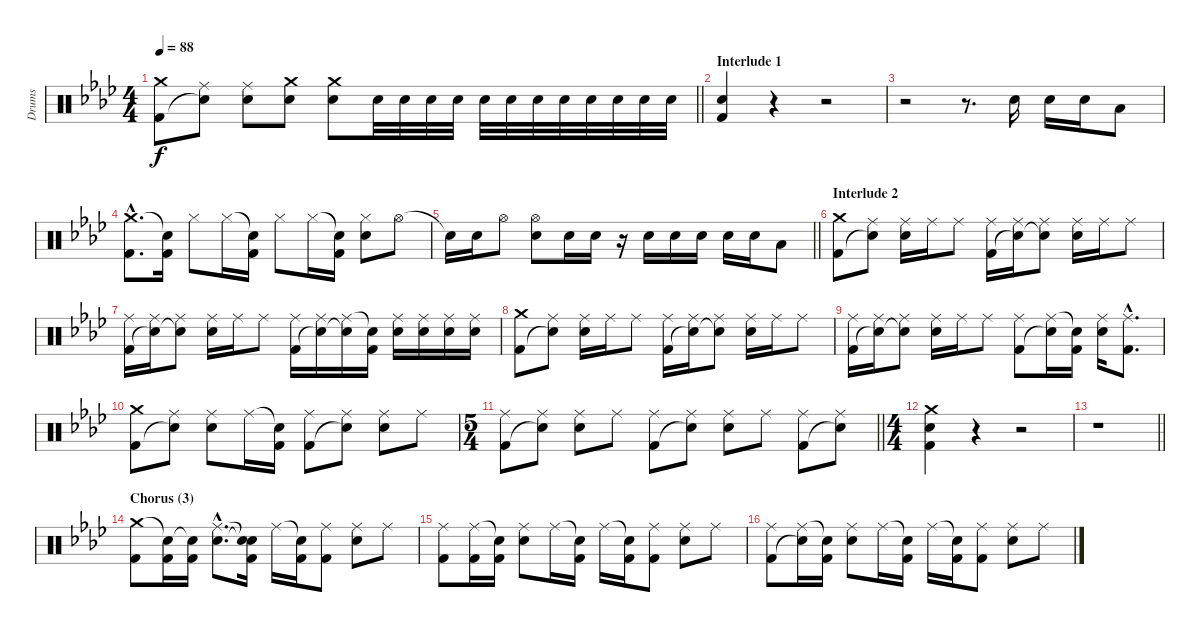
\track ("Drums" "Drums") {instrument percussion}
\staff {score}
\articulation defaults
\ts (4 4)
\tempo 88
\clef neutral
\barLineRight lightlight
\ks fminor
("Crash medium (hit)" "Kick (hit) 2").8{dy f} ("Ride (middle)" "Snare (hit)"{t}).8 ("Ride (middle)" "Electric Snare (hit)").8 ("Crash medium (hit)" "Electric Snare (hit)").8 ("Crash medium (hit)" "Electric Snare (hit)").8 "Electric Snare (hit)".32 "Electric Snare (hit)".32 "Electric Snare (hit)".32 "Electric Snare (hit)".32 "Electric Snare (hit)".32 "Electric Snare (hit)".32 "Electric Snare (hit)".32 "Electric Snare (hit)".32 "Electric Snare (hit)".32 "Electric Snare (hit)".32 "Electric Snare (hit)".32 "Electric Snare (hit)".32 |
\section ("" "Interlude 1")
("Electric Snare (hit)" "Kick (hit) 2").4 r.4 r.2 |
r.2 r.8{d} "Electric Snare (hit)".16 "Electric Snare (hit)".16 "Electric Snare (hit)".16 "Low Tom (hit)".8 |
("Crash medium (hit)"{hac} "Kick (hit) 2"{hac}).8{d} ("Snare (hit)"{t} "Kick (hit) 2").16 "Hi-Hat (closed)".8 "Hi-Hat (closed)".16 ("Snare (hit)"{t} "Kick (hit) 2").16 "Hi-Hat (closed)".8 "Hi-Hat (closed)".16 ("Snare (hit)"{t} "Kick (hit) 2").16 ("Hi-Hat (closed)" "Electric Snare (hit)").8 "Hi-Hat (open)".8 |
\barLineRight lightlight "Snare (hit)"{t}.16 "Electric Snare (hit)".16 "Hi-Hat (open)".8
("Hi-Hat (open)" "Electric Snare (hit)").8 "Electric Snare (hit)".16 "Electric Snare (hit)".16 r.16 "Electric Snare (hit)".16 "Electric Snare (hit)".16 "Electric Snare (hit)".16 "Electric Snare (hit)".16 "Electric Snare (hit)".16 "Low Tom (hit)".8 |
\section ("" "Interlude 2")
("Crash medium (hit)" "Kick (hit) 2").8 ("Ride (middle)" "Snare (hit)"{t}).8 ("Ride (middle)" "Electric Snare (hit)").16 "Ride (middle)".16 "Ride (middle)".8 ("Ride (middle)" "Kick (hit) 2").16 ("Ride (middle)" "Snare (hit)"{t}).16 ("Ride (middle)" "Snare (hit)"{t}).8 ("Ride (middle)" "Electric Snare (hit)").16 "Ride (middle)".16 "Ride (middle)".8 |
("Ride (middle)" "Kick (hit) 2").16 ("Ride (middle)" "Snare (hit)"{t}).16 ("Ride (middle)" "Snare (hit)"{t}).8 ("Ride (middle)" "Electric Snare (hit)").16 "Ride (middle)".16 "Ride (middle)".8 ("Ride (middle)" "Kick (hit) 2").16 ("Ride (middle)" "Snare (hit)"{t}).16 ("Ride (middle)" "Snare (hit)"{t}).16 ("Snare (hit)"{t} "Kick (hit) 2").16 ("Ride (middle)" "Electric Snare (hit)").16 ("Ride (middle)" "Electric Snare (hit)").16 ("Ride (middle)" "Electric Snare (hit)").16 ("Ride (middle)" "Electric Snare (hit)").16 |
("Crash medium (hit)" "Kick (hit) 2").8 ("Ride (middle)" "Snare (hit)"{t}).8 ("Ride (middle)" "Electric Snare (hit)").16 "Ride (middle)".16 "Ride (middle)".8 ("Ride (middle)" "Kick (hit) 2").16 ("Ride (middle)" "Snare (hit)"{t}).16 ("Ride (middle)" "Snare (hit)"{t}).8 ("Ride (middle)" "Electric Snare (hit)").16 "Ride (middle)".16 "Ride (middle)".8 |
("Ride (middle)" "Kick (hit) 2").16 ("Ride (middle)" "Snare (hit)"{t}).16 ("Ride (middle)" "Snare (hit)"{t}).8 ("Ride (middle)" "Electric Snare (hit)").16 "Ride (middle)".16 "Ride (middle)".8 ("Ride (middle)" "Kick (hit) 2").8 ("Ride (middle)" "Snare (hit)"{t}).16 ("Snare (hit)"{t} "Kick (hit) 2").16 ("Ride (middle)" "Electric Snare (hit)").16 ("Ride (middle)"{hac} "Kick (hit) 2"{hac}).8{d} |
("Crash medium (hit)" "Kick (hit) 2").8 ("Ride (middle)" "Snare (hit)"{t}).8 ("Ride (middle)" "Electric Snare (hit)").8 "Ride (middle)".16 ("Snare (hit)"{t} "Kick (hit) 2").16 ("Ride (middle)" "Kick (hit) 2").8 ("Ride (middle)" "Snare (hit)"{t}).8 ("Ride (middle)" "Electric Snare (hit)").8 "Ride (middle)".8 |
\ts (5 4)
\barLineRight lightlight
("Ride (middle)" "Kick (hit) 2").8 ("Ride (middle)" "Snare (hit)"{t}).8 ("Ride (middle)" "Electric Snare (hit)").8 "Ride (middle)".8 ("Ride (middle)" "Kick (hit) 2").8 ("Ride (middle)" "Snare (hit)"{t}).8 ("Ride (middle)" "Electric Snare (hit)").8 "Ride (middle)".8 ("Ride (middle)" "Kick (hit) 2").8 ("Ride (middle)" "Snare (hit)"{t}).8 |
\ts (4 4)
("Crash medium (hit)" "Electric Snare (hit)" "Kick (hit) 2").4 r.4 r.2 |
\barLineRight lightlight
r.1 |
\section ("" "Chorus (3)")
("Crash medium (hit)" "Kick (hit) 2").8 ("Snare (hit)"{t} "Kick (hit) 2").16 ("Snare (hit)"{t} "Kick (hit) 2").16 ("Ride (middle)"{hac} "Electric Snare (hit)"{hac}).8{d} ("Snare (hit)"{t} "Snare (hit)"{t} "Kick (hit) 2").16 "Ride (middle)".16 ("Snare (hit)"{t} "Kick (hit) 2").16 ("Ride (middle)" "Kick (hit) 2").8 ("Ride (middle)" "Electric Snare (hit)").8 "Ride (middle)".8 |
("Ride (middle)" "Kick (hit) 2").8 ("Ride (middle)" "Kick (hit) 2").16 ("Snare (hit)"{t} "Kick (hit) 2").16 ("Ride (middle)" "Electric Snare (hit)").8 "Ride (middle)".16 ("Snare (hit)"{t} "Kick (hit) 2").16 "Ride (middle)".16 ("Snare (hit)"{t} "Kick (hit) 2").16 ("Ride (middle)" "Kick (hit) 2").8 ("Ride (middle)" "Electric Snare (hit)").8 "Ride (middle)".8 |
("Ride (middle)" "Kick (hit) 2").8 ("Ride (middle)" "Snare (hit)"{t}).16 ("Snare (hit)"{t} "Kick (hit) 2").16 ("Ride (middle)" "Electric Snare (hit)").8 "Ride (middle)".16 ("Snare (hit)"{t} "Kick (hit) 2").16 "Ride (middle)".16 ("Snare (hit)"{t} "Kick (hit) 2").16 ("Ride (middle)" "Kick (hit) 2").8 ("Ride (middle)" "Electric Snare (hit)").8 "Ride (middle)".8
